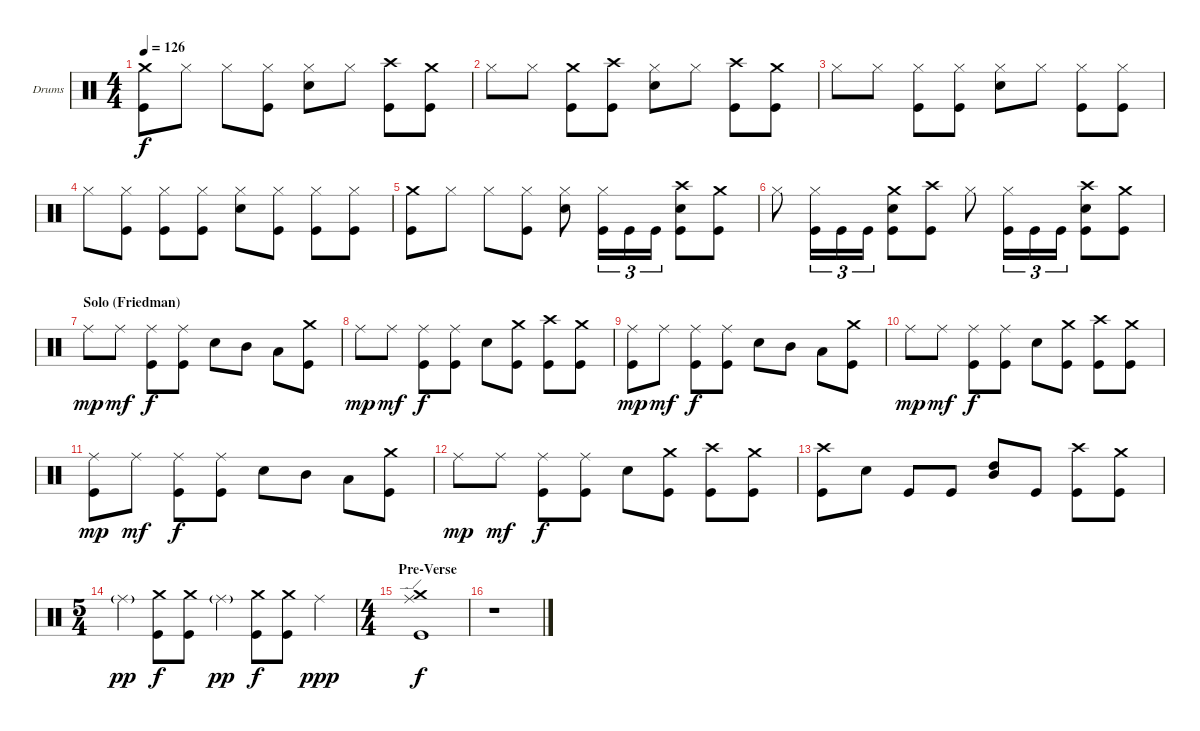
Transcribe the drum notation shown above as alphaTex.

\bracketExtendMode groupsimilarinstruments
\firstSystemTrackNameOrientation horizontal
\otherSystemsTrackNameOrientation horizontal
\track ("Drumkit" "Drums") {instrument percussion}
\staff {score}
\articulation defaults
\ts (4 4)
\tempo 126
\clef neutral
\ks c
("Crash medium (hit)" "Kick (hit)").8{dy f} "Hi-Hat (closed)".8 "Hi-Hat (closed)".8 ("Hi-Hat (closed)" "Kick (hit)").8 ("Hi-Hat (closed)" "Snare (hit) 2").8 "Hi-Hat (closed)".8 ("Crash high (hit)" "Kick (hit)").8 ("Crash medium (hit)" "Kick (hit)").8 |
"Hi-Hat (closed)".8 "Hi-Hat (closed)".8 ("Crash medium (hit)" "Kick (hit)").8 ("Crash high (hit)" "Kick (hit)").8 ("Hi-Hat (closed)" "Snare (hit) 2").8 "Hi-Hat (closed)".8 ("Crash high (hit)" "Kick (hit)").8 ("Crash medium (hit)" "Kick (hit)").8 |
"Hi-Hat (closed)".8 "Hi-Hat (closed)".8 ("Hi-Hat (closed)" "Kick (hit)").8 ("Hi-Hat (closed)" "Kick (hit)").8 ("Hi-Hat (closed)" "Snare (hit) 2").8 "Hi-Hat (closed)".8 ("Hi-Hat (closed)" "Kick (hit)").8 ("Hi-Hat (closed)" "Kick (hit)").8 |
"Hi-Hat (closed)".8 ("Hi-Hat (closed)" "Kick (hit)").8 ("Hi-Hat (closed)" "Kick (hit)").8 ("Hi-Hat (closed)" "Kick (hit)").8 ("Hi-Hat (closed)" "Snare (hit) 2").8 ("Hi-Hat (closed)" "Kick (hit)").8 ("Hi-Hat (closed)" "Kick (hit)").8 ("Hi-Hat (closed)" "Kick (hit)").8 |
("Crash medium (hit)" "Kick (hit)").8 "Hi-Hat (closed)".8 "Hi-Hat (closed)".8 ("Hi-Hat (closed)" "Kick (hit)").8 ("Hi-Hat (closed)" "Snare (hit) 2").8 ("Hi-Hat (closed)" "Kick (hit)").16{tu (3 2)} "Kick (hit)".16{tu (3 2)} "Kick (hit)".16{tu (3 2)} ("Crash high (hit)" "Snare (hit) 2" "Kick (hit)").8 ("Crash medium (hit)" "Kick (hit)").8 |
"Hi-Hat (closed)".8 ("Hi-Hat (closed)" "Kick (hit)").16{tu (3 2)} "Kick (hit)".16{tu (3 2)} "Kick (hit)".16{tu (3 2)} ("Crash medium (hit)" "Snare (hit) 2" "Kick (hit)").8 ("Crash high (hit)" "Kick (hit)").8 "Hi-Hat (closed)".8 ("Hi-Hat (closed)" "Kick (hit)").16{tu (3 2)} "Kick (hit)".16{tu (3 2)} "Kick (hit)".16{tu (3 2)} ("Crash high (hit)" "Snare (hit) 2" "Kick (hit)").8 ("Crash medium (hit)" "Kick (hit)").8 |
\section ("" "Solo (Friedman)")
"Ride (middle)".8{dy mp} "Ride (middle)".8{dy mf} ("Ride (middle)" "Kick (hit)").8{dy f} ("Ride (middle)" "Kick (hit)").8 "Snare (hit) 2".8 "Mid Tom (hit)".8 "Low Tom (hit)".8 ("Crash medium (hit)" "Kick (hit)").8 |
"Ride (middle)".8{dy mp} "Ride (middle)".8{dy mf} ("Ride (middle)" "Kick (hit)").8{dy f} ("Ride (middle)" "Kick (hit)").8 "Snare (hit) 2".8 ("Crash medium (hit)" "Kick (hit)").8 ("Crash high (hit)" "Kick (hit)").8 ("Crash medium (hit)" "Kick (hit)").8 |
("Ride (middle)" "Kick (hit)").8{dy mp} "Ride (middle)".8{dy mf} ("Ride (middle)" "Kick (hit)").8{dy f} ("Ride (middle)" "Kick (hit)").8 "Snare (hit) 2".8 "Mid Tom (hit)".8 "Low Tom (hit)".8 ("Crash medium (hit)" "Kick (hit)").8 |
"Ride (middle)".8{dy mp} "Ride (middle)".8{dy mf} ("Ride (middle)" "Kick (hit)").8{dy f} ("Ride (middle)" "Kick (hit)").8 "Snare (hit) 2".8 ("Crash medium (hit)" "Kick (hit)").8 ("Crash high (hit)" "Kick (hit)").8 ("Crash medium (hit)" "Kick (hit)").8 |
("Ride (middle)" "Kick (hit)").8{dy mp} "Ride (middle)".8{dy mf} ("Ride (middle)" "Kick (hit)").8{dy f} ("Ride (middle)" "Kick (hit)").8 "Snare (hit) 2".8 "Mid Tom (hit)".8 "Low Tom (hit)".8 ("Crash medium (hit)" "Kick (hit)").8 |
"Ride (middle)".8{dy mp} "Ride (middle)".8{dy mf} ("Ride (middle)" "Kick (hit)").8{dy f} ("Ride (middle)" "Kick (hit)").8 "Snare (hit) 2".8 ("Crash medium (hit)" "Kick (hit)").8 ("Crash high (hit)" "Kick (hit)").8 ("Crash medium (hit)" "Kick (hit)").8 |
("Crash high (hit)" "Kick (hit)").8 "Snare (hit) 2".8 "Kick (hit)".8 "Kick (hit)".8 ("High Tom (hit)" "Mid Tom (hit)").8 "Kick (hit)".8 ("Crash high (hit)" "Kick (hit)").8 ("Crash medium (hit)" "Kick (hit)").8 |
\ts (5 4)
\beaming (8 4 2 2 2)
"Ride (middle)"{g}.4{dy pp} ("Crash medium (hit)" "Kick (hit)").8{dy f} ("Crash medium (hit)" "Kick (hit)").8 "Ride (middle)"{g}.4{dy pp} ("Crash medium (hit)" "Kick (hit)").8{dy f} ("Crash medium (hit)" "Kick (hit)").8 "Ride (middle)".4{dy ppp} |
\ts (4 4)
\beaming (8 2 2 2 2)
\section ("" "Pre-Verse")
("Crash medium (hit)" "Ride (edge)" "Kick (hit)").1{dy f} |
r.1
